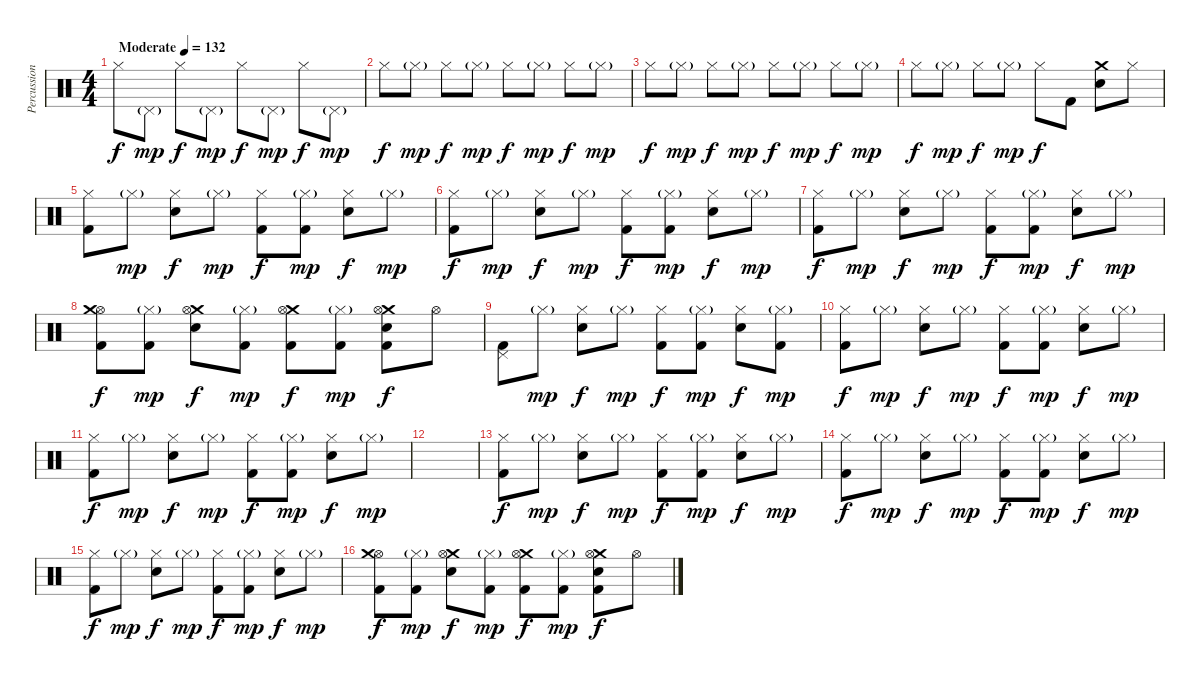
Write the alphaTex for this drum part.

\track ("Percussion" "Percussion") {instrument percussion}
\staff {score}
\articulation defaults
\ts (4 4)
\tempo (132 "Moderate")
\clef neutral
\ks c "Hi-Hat (closed)".8{dy f} "Pedal Hi-Hat (hit)"{g}.8{dy mp} "Hi-Hat (closed)".8{dy f} "Pedal Hi-Hat (hit)"{g}.8{dy mp} "Hi-Hat (closed)".8{dy f} "Pedal Hi-Hat (hit)"{g}.8{dy mp} "Hi-Hat (closed)".8{dy f} "Pedal Hi-Hat (hit)"{g}.8{dy mp}
|
"Hi-Hat (closed)".8{dy f} "Hi-Hat (closed)"{g}.8{dy mp} "Hi-Hat (closed)".8{dy f} "Hi-Hat (closed)"{g}.8{dy mp} "Hi-Hat (closed)".8{dy f} "Hi-Hat (closed)"{g}.8{dy mp} "Hi-Hat (closed)".8{dy f} "Hi-Hat (closed)"{g}.8{dy mp} |
"Hi-Hat (closed)".8{dy f} "Hi-Hat (closed)"{g}.8{dy mp} "Hi-Hat (closed)".8{dy f} "Hi-Hat (closed)"{g}.8{dy mp} "Hi-Hat (closed)".8{dy f} "Hi-Hat (closed)"{g}.8{dy mp} "Hi-Hat (closed)".8{dy f} "Hi-Hat (closed)"{g}.8{dy mp} |
"Hi-Hat (closed)".8{dy f} "Hi-Hat (closed)"{g}.8{dy mp} "Hi-Hat (closed)".8{dy f} "Hi-Hat (closed)"{g}.8{dy mp} "Hi-Hat (closed)".8{dy f} "Kick (hit) 2".8 ("Crash medium (hit)" "Snare (hit) 2").8 "Hi-Hat (closed)".8 |
("Hi-Hat (closed)" "Kick (hit) 2").8 "Hi-Hat (closed)"{g}.8{dy mp} ("Hi-Hat (closed)" "Snare (hit) 2").8{dy f} "Hi-Hat (closed)"{g}.8{dy mp} ("Hi-Hat (closed)" "Kick (hit) 2").8{dy f} ("Hi-Hat (closed)"{g} "Kick (hit) 2").8{dy mp} ("Hi-Hat (closed)" "Snare (hit) 2").8{dy f} "Hi-Hat (closed)"{g}.8{dy mp} |
("Hi-Hat (closed)" "Kick (hit) 2").8{dy f} "Hi-Hat (closed)"{g}.8{dy mp} ("Hi-Hat (closed)" "Snare (hit) 2").8{dy f} "Hi-Hat (closed)"{g}.8{dy mp} ("Hi-Hat (closed)" "Kick (hit) 2").8{dy f} ("Hi-Hat (closed)"{g} "Kick (hit) 2").8{dy mp} ("Hi-Hat (closed)" "Snare (hit) 2").8{dy f} "Hi-Hat (closed)"{g}.8{dy mp} |
("Hi-Hat (closed)" "Kick (hit) 2").8{dy f} "Hi-Hat (closed)"{g}.8{dy mp} ("Hi-Hat (closed)" "Snare (hit) 2").8{dy f} "Hi-Hat (closed)"{g}.8{dy mp} ("Hi-Hat (closed)" "Kick (hit) 2").8{dy f} ("Hi-Hat (closed)"{g} "Kick (hit) 2").8{dy mp} ("Hi-Hat (closed)" "Snare (hit) 2").8{dy f} "Hi-Hat (closed)"{g}.8{dy mp} |
("Hi-Hat (open)" "Crash medium (hit)" "Kick (hit) 2").8{dy f} ("Hi-Hat (closed)"{g} "Kick (hit) 2").8{dy mp} ("Crash medium (hit)" "Hi-Hat (open)" "Snare (hit) 2").8{dy f} ("Hi-Hat (closed)"{g} "Kick (hit) 2").8{dy mp} ("Crash medium (hit)" "Hi-Hat (open)" "Kick (hit) 2").8{dy f} ("Hi-Hat (closed)"{g} "Kick (hit) 2").8{dy mp} ("Crash medium (hit)" "Hi-Hat (open)" "Snare (hit) 2" "Kick (hit) 2").8{dy f} "Hi-Hat (open)".8 |
("Pedal Hi-Hat (hit)" "Kick (hit) 2").8 "Hi-Hat (closed)"{g}.8{dy mp} ("Hi-Hat (closed)" "Snare (hit) 2").8{dy f} "Hi-Hat (closed)"{g}.8{dy mp} ("Hi-Hat (closed)" "Kick (hit) 2").8{dy f} ("Hi-Hat (closed)"{g} "Kick (hit) 2").8{dy mp} ("Hi-Hat (closed)" "Snare (hit) 2").8{dy f} ("Hi-Hat (closed)"{g} "Kick (hit) 2").8{dy mp} |
("Hi-Hat (closed)" "Kick (hit) 2").8{dy f} "Hi-Hat (closed)"{g}.8{dy mp} ("Hi-Hat (closed)" "Snare (hit) 2").8{dy f} "Hi-Hat (closed)"{g}.8{dy mp} ("Hi-Hat (closed)" "Kick (hit) 2").8{dy f} ("Hi-Hat (closed)"{g} "Kick (hit) 2").8{dy mp} ("Hi-Hat (closed)" "Snare (hit) 2").8{dy f} "Hi-Hat (closed)"{g}.8{dy mp} |
("Hi-Hat (closed)" "Kick (hit) 2").8{dy f} "Hi-Hat (closed)"{g}.8{dy mp} ("Hi-Hat (closed)" "Snare (hit) 2").8{dy f} "Hi-Hat (closed)"{g}.8{dy mp} ("Hi-Hat (closed)" "Kick (hit) 2").8{dy f} ("Hi-Hat (closed)"{g} "Kick (hit) 2").8{dy mp} ("Hi-Hat (closed)" "Snare (hit) 2").8{dy f} "Hi-Hat (closed)"{g}.8{dy mp} |
|
("Hi-Hat (closed)" "Kick (hit) 2").8{dy f} "Hi-Hat (closed)"{g}.8{dy mp} ("Hi-Hat (closed)" "Snare (hit) 2").8{dy f} "Hi-Hat (closed)"{g}.8{dy mp} ("Hi-Hat (closed)" "Kick (hit) 2").8{dy f} ("Hi-Hat (closed)"{g} "Kick (hit) 2").8{dy mp} ("Hi-Hat (closed)" "Snare (hit) 2").8{dy f} "Hi-Hat (closed)"{g}.8{dy mp} |
("Hi-Hat (closed)" "Kick (hit) 2").8{dy f} "Hi-Hat (closed)"{g}.8{dy mp} ("Hi-Hat (closed)" "Snare (hit) 2").8{dy f} "Hi-Hat (closed)"{g}.8{dy mp} ("Hi-Hat (closed)" "Kick (hit) 2").8{dy f} ("Hi-Hat (closed)"{g} "Kick (hit) 2").8{dy mp} ("Hi-Hat (closed)" "Snare (hit) 2").8{dy f} "Hi-Hat (closed)"{g}.8{dy mp} |
("Hi-Hat (closed)" "Kick (hit) 2").8{dy f} "Hi-Hat (closed)"{g}.8{dy mp} ("Hi-Hat (closed)" "Snare (hit) 2").8{dy f} "Hi-Hat (closed)"{g}.8{dy mp} ("Hi-Hat (closed)" "Kick (hit) 2").8{dy f} ("Hi-Hat (closed)"{g} "Kick (hit) 2").8{dy mp} ("Hi-Hat (closed)" "Snare (hit) 2").8{dy f} "Hi-Hat (closed)"{g}.8{dy mp} |
("Hi-Hat (open)" "Crash medium (hit)" "Kick (hit) 2").8{dy f} ("Hi-Hat (closed)"{g} "Kick (hit) 2").8{dy mp} ("Crash medium (hit)" "Hi-Hat (open)" "Snare (hit) 2").8{dy f} ("Hi-Hat (closed)"{g} "Kick (hit) 2").8{dy mp} ("Crash medium (hit)" "Hi-Hat (open)" "Kick (hit) 2").8{dy f} ("Hi-Hat (closed)"{g} "Kick (hit) 2").8{dy mp} ("Crash medium (hit)" "Hi-Hat (open)" "Snare (hit) 2" "Kick (hit) 2").8{dy f} "Hi-Hat (open)".8
